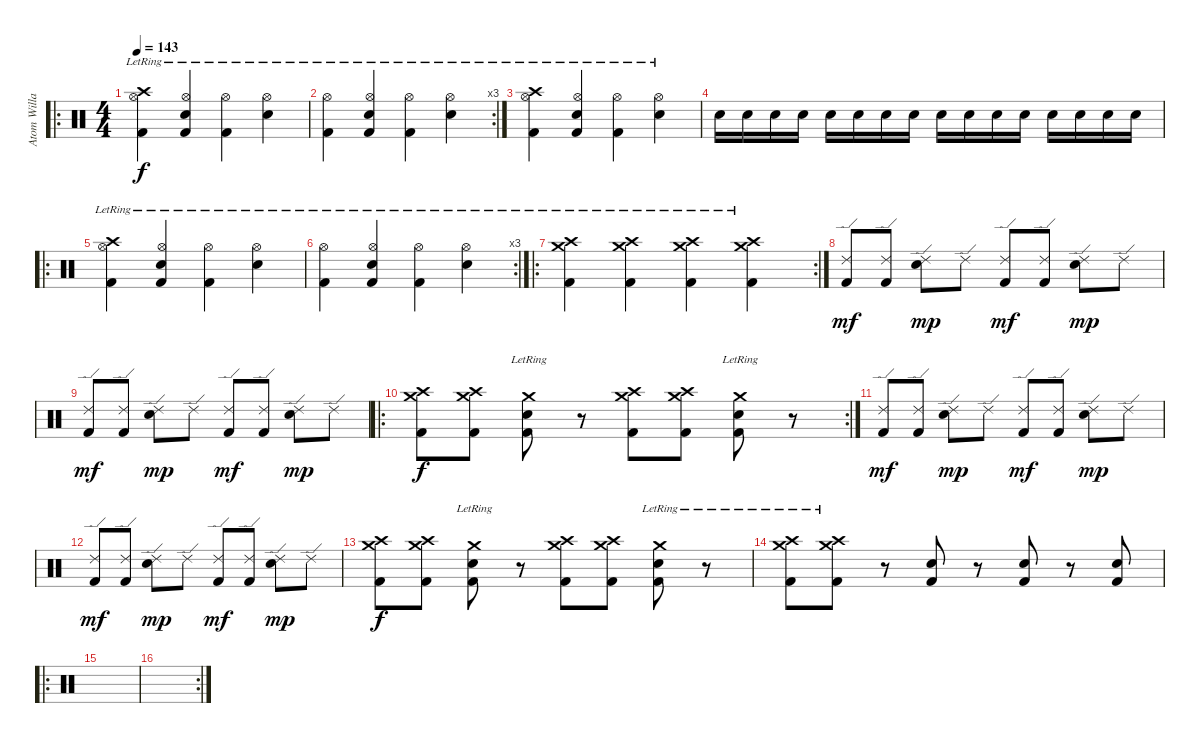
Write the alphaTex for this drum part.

\track ("Atom Willard (drums)" "Atom Willa") {instrument percussion}
\staff {score}
\articulation defaults
\ro
\ts (4 4)
\tempo 143
\clef neutral
\ks c
("Kick (hit) 2" "Hi-Hat (open)"{lr} "Crash high (hit)").4{dy f} ("Kick (hit) 2" "Hi-Hat (open)"{lr} "Snare (hit) 2").4 ("Kick (hit) 2" "Hi-Hat (open)"{lr}).4 ("Hi-Hat (open)"{lr} "Snare (hit) 2").4 |
\rc 3
("Kick (hit) 2" "Hi-Hat (open)"{lr}).4 ("Kick (hit) 2" "Hi-Hat (open)"{lr} "Snare (hit) 2").4 ("Kick (hit) 2" "Hi-Hat (open)"{lr}).4 ("Hi-Hat (open)"{lr} "Snare (hit) 2").4 |
("Kick (hit) 2" "Hi-Hat (open)"{lr} "Crash high (hit)").4 ("Kick (hit) 2" "Hi-Hat (open)"{lr} "Snare (hit) 2").4 ("Kick (hit) 2" "Hi-Hat (open)"{lr}).4 ("Hi-Hat (open)"{lr} "Snare (hit) 2").4 |
"Snare (hit) 2".16 "Snare (hit) 2".16 "Snare (hit) 2".16 "Snare (hit) 2".16 "Snare (hit) 2".16 "Snare (hit) 2".16 "Snare (hit) 2".16 "Snare (hit) 2".16 "Snare (hit) 2".16 "Snare (hit) 2".16 "Snare (hit) 2".16 "Snare (hit) 2".16 "Snare (hit) 2".16 "Snare (hit) 2".16 "Snare (hit) 2".16 "Snare (hit) 2".16 |
\ro
("Kick (hit) 2" "Hi-Hat (open)"{lr} "Crash high (hit)").4 ("Kick (hit) 2" "Hi-Hat (open)"{lr} "Snare (hit) 2").4 ("Kick (hit) 2" "Hi-Hat (open)"{lr}).4 ("Hi-Hat (open)"{lr} "Snare (hit) 2").4 |
\rc 3
("Kick (hit) 2" "Hi-Hat (open)"{lr}).4 ("Kick (hit) 2" "Hi-Hat (open)"{lr} "Snare (hit) 2").4 ("Kick (hit) 2" "Hi-Hat (open)"{lr}).4 ("Hi-Hat (open)"{lr} "Snare (hit) 2").4 |
\ro
\rc 2
("Kick (hit) 2" "Crash medium (hit)"{lr} "Crash high (hit)").4 ("Kick (hit) 2" "Crash medium (hit)"{lr} "Crash high (hit)").4 ("Kick (hit) 2" "Crash medium (hit)"{lr} "Crash high (hit)").4 ("Kick (hit) 2" "Crash medium (hit)"{lr} "Crash high (hit)").4 |
("Kick (hit) 2" "Ride (edge) 2").8{dy mf} ("Kick (hit) 2" "Ride (edge) 2").8 ("Ride (edge) 2" "Snare (hit) 2").8{dy mp} "Ride (edge) 2".8 ("Kick (hit) 2" "Ride (edge) 2").8{dy mf} ("Kick (hit) 2" "Ride (edge) 2").8 ("Ride (edge) 2" "Snare (hit) 2").8{dy mp} "Ride (edge) 2".8 |
("Kick (hit) 2" "Ride (edge) 2").8{dy mf} ("Kick (hit) 2" "Ride (edge) 2").8 ("Ride (edge) 2" "Snare (hit) 2").8{dy mp} "Ride (edge) 2".8 ("Kick (hit) 2" "Ride (edge) 2").8{dy mf} ("Kick (hit) 2" "Ride (edge) 2").8 ("Ride (edge) 2" "Snare (hit) 2").8{dy mp} "Ride (edge) 2".8 |
\ro
\rc 2
("Kick (hit) 2" "Crash medium (hit)" "Crash high (hit)").8{dy f} ("Kick (hit) 2" "Crash medium (hit)" "Crash high (hit)").8 ("Kick (hit) 2" "Crash medium (hit)"{lr} "Snare (hit) 2").8 r.8 ("Kick (hit) 2" "Crash medium (hit)" "Crash high (hit)").8 ("Kick (hit) 2" "Crash medium (hit)" "Crash high (hit)").8 ("Kick (hit) 2" "Crash medium (hit)"{lr} "Snare (hit) 2").8 r.8 |
("Kick (hit) 2" "Ride (edge) 2").8{dy mf} ("Kick (hit) 2" "Ride (edge) 2").8 ("Ride (edge) 2" "Snare (hit) 2").8{dy mp} "Ride (edge) 2".8 ("Kick (hit) 2" "Ride (edge) 2").8{dy mf} ("Kick (hit) 2" "Ride (edge) 2").8 ("Ride (edge) 2" "Snare (hit) 2").8{dy mp} "Ride (edge) 2".8 |
("Kick (hit) 2" "Ride (edge) 2").8{dy mf} ("Kick (hit) 2" "Ride (edge) 2").8 ("Ride (edge) 2" "Snare (hit) 2").8{dy mp} "Ride (edge) 2".8 ("Kick (hit) 2" "Ride (edge) 2").8{dy mf} ("Kick (hit) 2" "Ride (edge) 2").8 ("Ride (edge) 2" "Snare (hit) 2").8{dy mp} "Ride (edge) 2".8 |
("Kick (hit) 2" "Crash medium (hit)" "Crash high (hit)").8{dy f} ("Kick (hit) 2" "Crash medium (hit)" "Crash high (hit)").8 ("Kick (hit) 2" "Crash medium (hit)"{lr} "Snare (hit) 2").8 r.8 ("Kick (hit) 2" "Crash medium (hit)" "Crash high (hit)").8 ("Kick (hit) 2" "Crash medium (hit)" "Crash high (hit)").8 ("Kick (hit) 2" "Crash medium (hit)"{lr} "Snare (hit) 2").8 r.8 |
("Kick (hit) 2" "Crash medium (hit)"{lr} "Crash high (hit)"{lr}).8 ("Kick (hit) 2" "Crash medium (hit)"{lr} "Crash high (hit)"{lr}).8 r.8 ("Kick (hit) 2" "Snare (hit) 2").8 r.8 ("Kick (hit) 2" "Snare (hit) 2").8 r.8 ("Kick (hit) 2" "Snare (hit) 2").8 |
\ro
|
\rc 2
